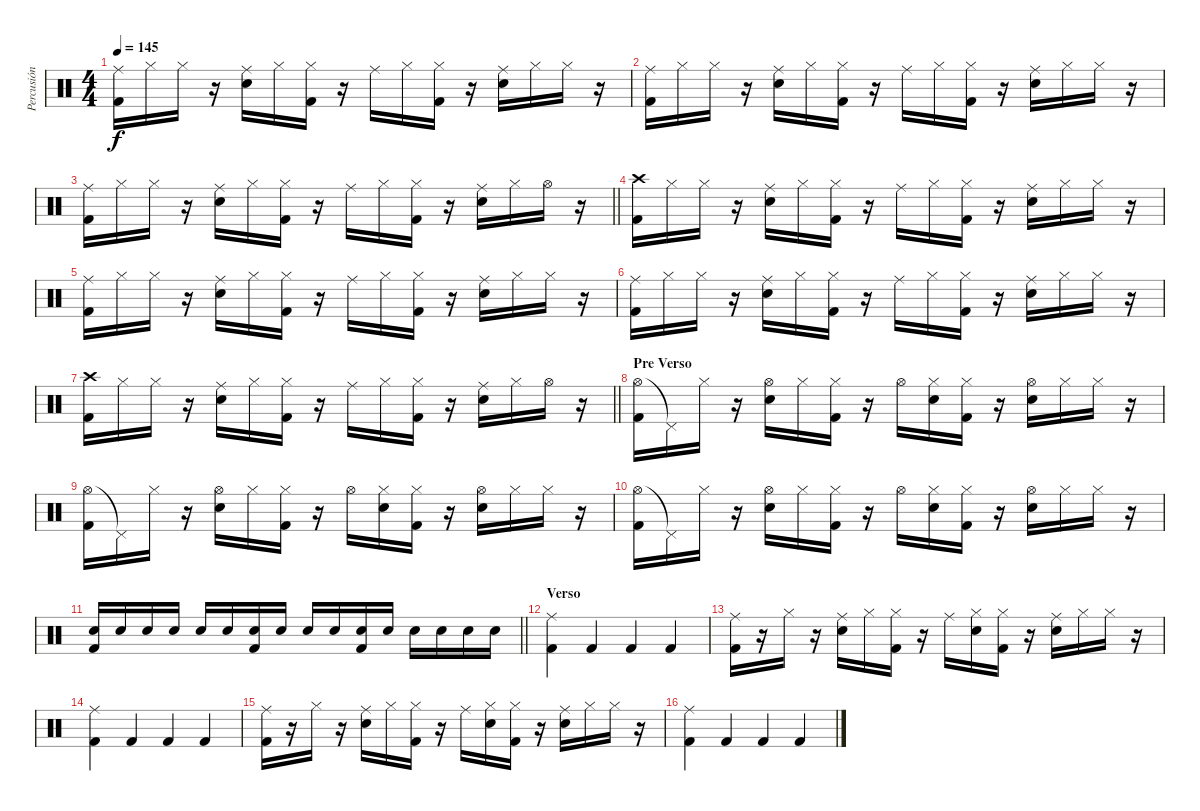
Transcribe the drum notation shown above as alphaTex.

\track ("Percusión" "Percusión") {instrument percussion}
\staff {score}
\articulation defaults
\ts (4 4)
\tempo 145
\clef neutral
\ks c
("Ride (middle)" "Kick (hit) 2").16{dy f} "Hi-Hat (closed)".16 "Hi-Hat (closed)".16 r.16 ("Ride (middle)" "Electric Snare (hit)").16 "Hi-Hat (closed)".16 ("Hi-Hat (closed)" "Kick (hit) 2").16 r.16 "Ride (middle)".16 "Hi-Hat (closed)".16 ("Hi-Hat (closed)" "Kick (hit) 2").16 r.16 ("Ride (middle)" "Electric Snare (hit)").16 "Hi-Hat (closed)".16 "Hi-Hat (closed)".16 r.16 |
("Ride (middle)" "Kick (hit) 2").16 "Hi-Hat (closed)".16 "Hi-Hat (closed)".16 r.16 ("Ride (middle)" "Electric Snare (hit)").16 "Hi-Hat (closed)".16 ("Hi-Hat (closed)" "Kick (hit) 2").16 r.16 "Ride (middle)".16 "Hi-Hat (closed)".16 ("Hi-Hat (closed)" "Kick (hit) 2").16 r.16 ("Ride (middle)" "Electric Snare (hit)").16 "Hi-Hat (closed)".16 "Hi-Hat (closed)".16 r.16 |
\barLineRight lightlight
("Ride (middle)" "Kick (hit) 2").16 "Hi-Hat (closed)".16 "Hi-Hat (closed)".16 r.16 ("Ride (middle)" "Electric Snare (hit)").16 "Hi-Hat (closed)".16 ("Hi-Hat (closed)" "Kick (hit) 2").16 r.16 "Ride (middle)".16 "Hi-Hat (closed)".16 ("Hi-Hat (closed)" "Kick (hit) 2").16 r.16 ("Ride (middle)" "Electric Snare (hit)").16 "Hi-Hat (closed)".16 "Hi-Hat (open)".16 r.16 |
("Crash high (hit)" "Kick (hit) 2").16 "Hi-Hat (closed)".16 "Hi-Hat (closed)".16 r.16 ("Ride (middle)" "Electric Snare (hit)").16 "Hi-Hat (closed)".16 ("Hi-Hat (closed)" "Kick (hit) 2").16 r.16 "Ride (middle)".16 "Hi-Hat (closed)".16 ("Hi-Hat (closed)" "Kick (hit) 2").16 r.16 ("Ride (middle)" "Electric Snare (hit)").16 "Hi-Hat (closed)".16 "Hi-Hat (closed)".16 r.16 |
("Ride (middle)" "Kick (hit) 2").16 "Hi-Hat (closed)".16 "Hi-Hat (closed)".16 r.16 ("Ride (middle)" "Electric Snare (hit)").16 "Hi-Hat (closed)".16 ("Hi-Hat (closed)" "Kick (hit) 2").16 r.16 "Ride (middle)".16 "Hi-Hat (closed)".16 ("Hi-Hat (closed)" "Kick (hit) 2").16 r.16 ("Ride (middle)" "Electric Snare (hit)").16 "Hi-Hat (closed)".16 "Hi-Hat (closed)".16 r.16 |
("Ride (middle)" "Kick (hit) 2").16 "Hi-Hat (closed)".16 "Hi-Hat (closed)".16 r.16 ("Ride (middle)" "Electric Snare (hit)").16 "Hi-Hat (closed)".16 ("Hi-Hat (closed)" "Kick (hit) 2").16 r.16 "Ride (middle)".16 "Hi-Hat (closed)".16 ("Hi-Hat (closed)" "Kick (hit) 2").16 r.16 ("Ride (middle)" "Electric Snare (hit)").16 "Hi-Hat (closed)".16 "Hi-Hat (closed)".16 r.16 |
\barLineRight lightlight
("Crash high (hit)" "Kick (hit) 2").16 "Hi-Hat (closed)".16 "Hi-Hat (closed)".16 r.16 ("Ride (middle)" "Electric Snare (hit)").16 "Hi-Hat (closed)".16 ("Hi-Hat (closed)" "Kick (hit) 2").16 r.16 "Ride (middle)".16 "Hi-Hat (closed)".16 ("Hi-Hat (closed)" "Kick (hit) 2").16 r.16 ("Ride (middle)" "Electric Snare (hit)").16 "Hi-Hat (closed)".16 "Hi-Hat (open)".16 r.16 |
\section ("" "Pre Verso")
("Hi-Hat (open)" "Kick (hit) 2").16 "Pedal Hi-Hat (hit)"{t}.16 "Hi-Hat (closed)".16 r.16 ("Hi-Hat (open)" "Electric Snare (hit)").16 "Hi-Hat (closed)".16 ("Hi-Hat (closed)" "Kick (hit) 2").16 r.16 "Hi-Hat (open)".16 ("Hi-Hat (closed)" "Electric Snare (hit)").16 ("Hi-Hat (closed)" "Kick (hit) 2").16 r.16 ("Hi-Hat (open)" "Electric Snare (hit)").16 "Hi-Hat (closed)".16 "Hi-Hat (closed)".16 r.16 |
("Hi-Hat (open)" "Kick (hit) 2").16 "Pedal Hi-Hat (hit)"{t}.16 "Hi-Hat (closed)".16 r.16 ("Hi-Hat (open)" "Electric Snare (hit)").16 "Hi-Hat (closed)".16 ("Hi-Hat (closed)" "Kick (hit) 2").16 r.16 "Hi-Hat (open)".16 ("Hi-Hat (closed)" "Electric Snare (hit)").16 ("Hi-Hat (closed)" "Kick (hit) 2").16 r.16 ("Hi-Hat (open)" "Electric Snare (hit)").16 "Hi-Hat (closed)".16 "Hi-Hat (closed)".16 r.16 |
("Hi-Hat (open)" "Kick (hit) 2").16 "Pedal Hi-Hat (hit)"{t}.16 "Hi-Hat (closed)".16 r.16 ("Hi-Hat (open)" "Electric Snare (hit)").16 "Hi-Hat (closed)".16 ("Hi-Hat (closed)" "Kick (hit) 2").16 r.16 "Hi-Hat (open)".16 ("Hi-Hat (closed)" "Electric Snare (hit)").16 ("Hi-Hat (closed)" "Kick (hit) 2").16 r.16 ("Hi-Hat (open)" "Electric Snare (hit)").16 "Hi-Hat (closed)".16 "Hi-Hat (closed)".16 r.16 |
\barLineRight lightlight
("Snare (hit) 2" "Kick (hit) 2").16 "Snare (hit) 2".16 "Snare (hit) 2".16 "Snare (hit) 2".16 "Snare (hit) 2".16 "Snare (hit) 2".16 ("Snare (hit) 2" "Kick (hit) 2").16 "Snare (hit) 2".16 "Snare (hit) 2".16 "Snare (hit) 2".16 ("Snare (hit) 2" "Kick (hit) 2").16 "Snare (hit) 2".16 "Snare (hit) 2".16 "Snare (hit) 2".16 "Snare (hit) 2".16 "Snare (hit) 2".16 |
\section ("" "Verso")
("Ride (middle)" "Kick (hit) 2").4 "Kick (hit) 2".4 "Kick (hit) 2".4 "Kick (hit) 2".4 |
("Ride (middle)" "Kick (hit) 2").16 r.16 "Hi-Hat (closed)".16 r.16 ("Ride (middle)" "Electric Snare (hit)").16 "Hi-Hat (closed)".16 ("Hi-Hat (closed)" "Kick (hit) 2").16 r.16 "Ride (middle)".16 ("Hi-Hat (closed)" "Electric Snare (hit)").16 ("Hi-Hat (closed)" "Kick (hit) 2").16 r.16 ("Ride (middle)" "Electric Snare (hit)").16 "Hi-Hat (closed)".16 "Hi-Hat (closed)".16 r.16 |
("Ride (middle)" "Kick (hit) 2").4 "Kick (hit) 2".4 "Kick (hit) 2".4 "Kick (hit) 2".4 |
("Ride (middle)" "Kick (hit) 2").16 r.16 "Hi-Hat (closed)".16 r.16 ("Ride (middle)" "Electric Snare (hit)").16 "Hi-Hat (closed)".16 ("Hi-Hat (closed)" "Kick (hit) 2").16 r.16 "Ride (middle)".16 ("Hi-Hat (closed)" "Electric Snare (hit)").16 ("Hi-Hat (closed)" "Kick (hit) 2").16 r.16 ("Ride (middle)" "Electric Snare (hit)").16 "Hi-Hat (closed)".16 "Hi-Hat (closed)".16 r.16 |
("Ride (middle)" "Kick (hit) 2").4 "Kick (hit) 2".4 "Kick (hit) 2".4 "Kick (hit) 2".4
